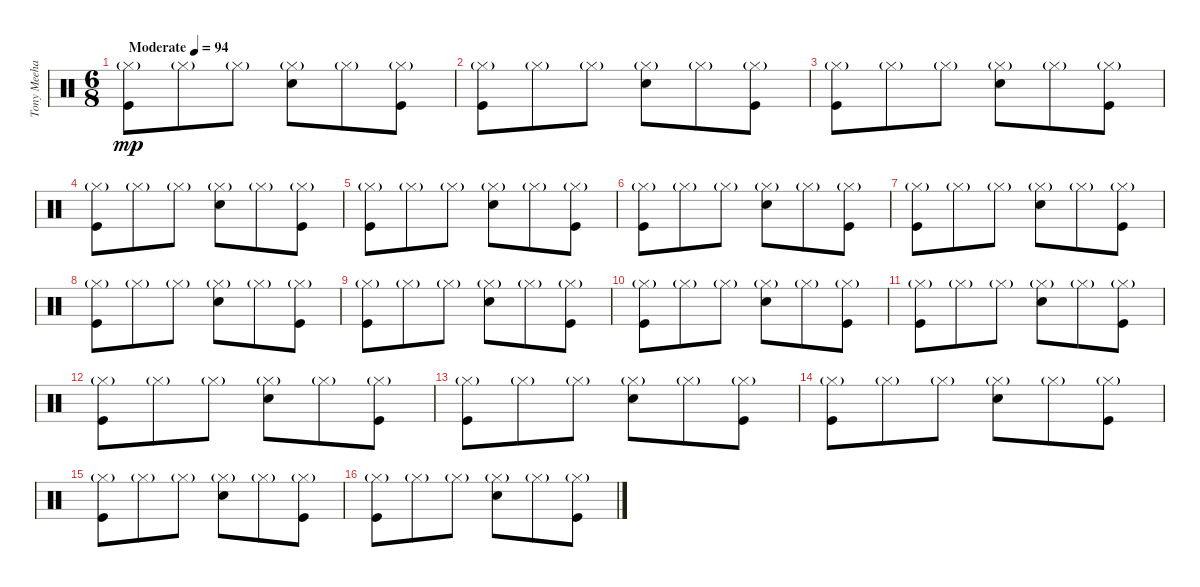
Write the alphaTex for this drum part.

\track ("Tony Meehan (drums)" "Tony Meeha") {instrument percussion}
\staff {score}
\articulation defaults
\ts (6 8)
\tempo (94 "Moderate")
\clef neutral
\ks c
("Kick (hit)" "Hi-Hat (closed)"{g}).8{dy mp} "Hi-Hat (closed)"{g}.8 "Hi-Hat (closed)"{g}.8 ("Electric Snare (hit)" "Hi-Hat (closed)"{g}).8 "Hi-Hat (closed)"{g}.8 ("Kick (hit)" "Hi-Hat (closed)"{g}).8 |
("Kick (hit)" "Hi-Hat (closed)"{g}).8 "Hi-Hat (closed)"{g}.8 "Hi-Hat (closed)"{g}.8 ("Electric Snare (hit)" "Hi-Hat (closed)"{g}).8 "Hi-Hat (closed)"{g}.8 ("Kick (hit)" "Hi-Hat (closed)"{g}).8 |
("Kick (hit)" "Hi-Hat (closed)"{g}).8 "Hi-Hat (closed)"{g}.8 "Hi-Hat (closed)"{g}.8 ("Electric Snare (hit)" "Hi-Hat (closed)"{g}).8 "Hi-Hat (closed)"{g}.8 ("Kick (hit)" "Hi-Hat (closed)"{g}).8 |
("Kick (hit)" "Hi-Hat (closed)"{g}).8 "Hi-Hat (closed)"{g}.8 "Hi-Hat (closed)"{g}.8 ("Electric Snare (hit)" "Hi-Hat (closed)"{g}).8 "Hi-Hat (closed)"{g}.8 ("Kick (hit)" "Hi-Hat (closed)"{g}).8 |
("Kick (hit)" "Hi-Hat (closed)"{g}).8 "Hi-Hat (closed)"{g}.8 "Hi-Hat (closed)"{g}.8 ("Electric Snare (hit)" "Hi-Hat (closed)"{g}).8 "Hi-Hat (closed)"{g}.8 ("Kick (hit)" "Hi-Hat (closed)"{g}).8 |
("Kick (hit)" "Hi-Hat (closed)"{g}).8 "Hi-Hat (closed)"{g}.8 "Hi-Hat (closed)"{g}.8 ("Electric Snare (hit)" "Hi-Hat (closed)"{g}).8 "Hi-Hat (closed)"{g}.8 ("Kick (hit)" "Hi-Hat (closed)"{g}).8 |
("Kick (hit)" "Hi-Hat (closed)"{g}).8 "Hi-Hat (closed)"{g}.8 "Hi-Hat (closed)"{g}.8 ("Electric Snare (hit)" "Hi-Hat (closed)"{g}).8 "Hi-Hat (closed)"{g}.8 ("Kick (hit)" "Hi-Hat (closed)"{g}).8 |
("Kick (hit)" "Hi-Hat (closed)"{g}).8 "Hi-Hat (closed)"{g}.8 "Hi-Hat (closed)"{g}.8 ("Electric Snare (hit)" "Hi-Hat (closed)"{g}).8 "Hi-Hat (closed)"{g}.8 ("Kick (hit)" "Hi-Hat (closed)"{g}).8 |
("Kick (hit)" "Hi-Hat (closed)"{g}).8 "Hi-Hat (closed)"{g}.8 "Hi-Hat (closed)"{g}.8 ("Electric Snare (hit)" "Hi-Hat (closed)"{g}).8 "Hi-Hat (closed)"{g}.8 ("Kick (hit)" "Hi-Hat (closed)"{g}).8 |
("Kick (hit)" "Hi-Hat (closed)"{g}).8 "Hi-Hat (closed)"{g}.8 "Hi-Hat (closed)"{g}.8 ("Electric Snare (hit)" "Hi-Hat (closed)"{g}).8 "Hi-Hat (closed)"{g}.8 ("Kick (hit)" "Hi-Hat (closed)"{g}).8 |
("Kick (hit)" "Hi-Hat (closed)"{g}).8 "Hi-Hat (closed)"{g}.8 "Hi-Hat (closed)"{g}.8 ("Electric Snare (hit)" "Hi-Hat (closed)"{g}).8 "Hi-Hat (closed)"{g}.8 ("Kick (hit)" "Hi-Hat (closed)"{g}).8 |
("Kick (hit)" "Hi-Hat (closed)"{g}).8 "Hi-Hat (closed)"{g}.8 "Hi-Hat (closed)"{g}.8 ("Electric Snare (hit)" "Hi-Hat (closed)"{g}).8 "Hi-Hat (closed)"{g}.8 ("Kick (hit)" "Hi-Hat (closed)"{g}).8 |
("Kick (hit)" "Hi-Hat (closed)"{g}).8 "Hi-Hat (closed)"{g}.8 "Hi-Hat (closed)"{g}.8 ("Electric Snare (hit)" "Hi-Hat (closed)"{g}).8 "Hi-Hat (closed)"{g}.8 ("Kick (hit)" "Hi-Hat (closed)"{g}).8 |
("Kick (hit)" "Hi-Hat (closed)"{g}).8 "Hi-Hat (closed)"{g}.8 "Hi-Hat (closed)"{g}.8 ("Electric Snare (hit)" "Hi-Hat (closed)"{g}).8 "Hi-Hat (closed)"{g}.8 ("Kick (hit)" "Hi-Hat (closed)"{g}).8 |
("Kick (hit)" "Hi-Hat (closed)"{g}).8 "Hi-Hat (closed)"{g}.8 "Hi-Hat (closed)"{g}.8 ("Electric Snare (hit)" "Hi-Hat (closed)"{g}).8 "Hi-Hat (closed)"{g}.8 ("Kick (hit)" "Hi-Hat (closed)"{g}).8 |
("Kick (hit)" "Hi-Hat (closed)"{g}).8 "Hi-Hat (closed)"{g}.8 "Hi-Hat (closed)"{g}.8 ("Electric Snare (hit)" "Hi-Hat (closed)"{g}).8 "Hi-Hat (closed)"{g}.8 ("Kick (hit)" "Hi-Hat (closed)"{g}).8
